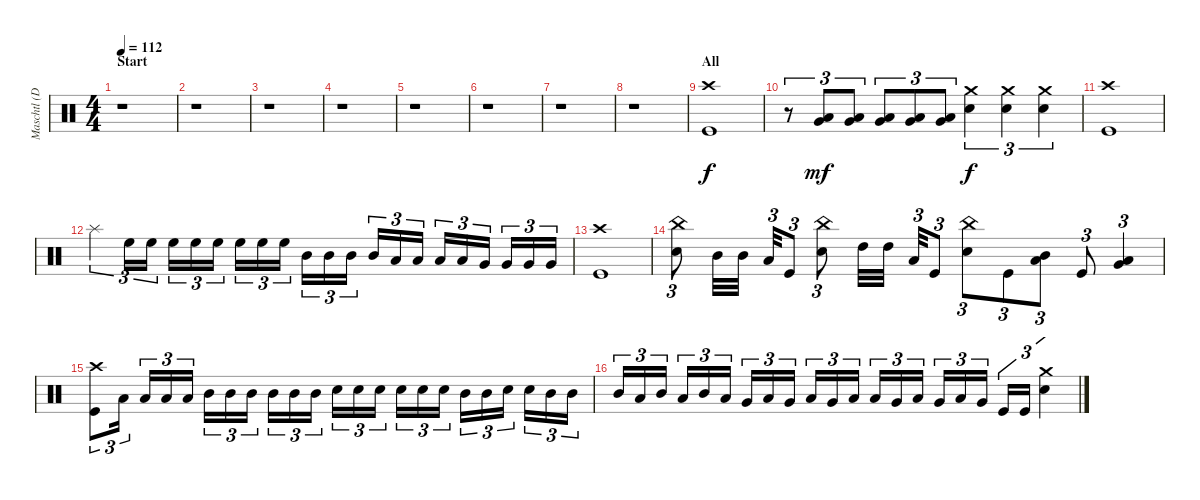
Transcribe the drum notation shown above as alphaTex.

\track ("Maschtl (Drums)" "Maschtl (D") {instrument percussion}
\staff {score}
\articulation defaults
\ts (4 4)
\section ("" "Start")
\tempo 112
\clef neutral
\ks c
r.1{dy f} |
r.1 |
r.1 |
r.1 |
r.1 |
r.1 |
r.1 |
r.1 |
\section ("" "All")
("Crash high (hit)" "Kick (hit)").1 |
r.8{tu (3 2)} ("Low Tom (hit)" "Very Low Tom (hit)").8{tu (3 2) bu 120 dy mf} ("Low Tom (hit)" "Very Low Tom (hit)").8{tu (3 2) bu 120} ("Low Tom (hit)" "Very Low Tom (hit)").8{tu (3 2) bu 120} ("Low Tom (hit)" "Very Low Tom (hit)").8{tu (3 2) bu 120} ("Low Tom (hit)" "Very Low Tom (hit)").8{tu (3 2) bu 120} ("Crash medium (hit)" "Electric Snare (hit)").4{tu (3 2) dy f} ("Crash medium (hit)" "Electric Snare (hit)").4{tu (3 2)} ("Crash medium (hit)" "Electric Snare (hit)").4{tu (3 2)} |
("Crash high (hit)" "Kick (hit)").1 |
"Splash (hit)".4{tu (3 2)} "High Floor Tom (hit)".16{tu (3 2)} "High Floor Tom (hit)".16{tu (3 2)} "High Floor Tom (hit)".16{tu (3 2)} "High Floor Tom (hit)".16{tu (3 2)} "High Floor Tom (hit)".16{tu (3 2)} "High Floor Tom (hit)".16{tu (3 2)} "High Floor Tom (hit)".16{tu (3 2)} "High Floor Tom (hit)".16{tu (3 2)} "Mid Tom (hit)".16{tu (3 2)} "Mid Tom (hit)".16{tu (3 2)} "Mid Tom (hit)".16{tu (3 2)} "Mid Tom (hit)".16{tu (3 2)} "Low Tom (hit)".16{tu (3 2)} "Low Tom (hit)".16{tu (3 2)} "Low Tom (hit)".16{tu (3 2)} "Low Tom (hit)".16{tu (3 2)} "Very Low Tom (hit)".16{tu (3 2)} "Very Low Tom (hit)".16{tu (3 2)} "Very Low Tom (hit)".16{tu (3 2)} "Very Low Tom (hit)".16{tu (3 2)} |
("Crash high (hit)" "Kick (hit)").1 |
("China (hit)" "Electric Snare (hit)").8{tu (3 2)} "Mid Tom (hit)".32 "Mid Tom (hit)".32 "Low Tom (hit)".32{tu (3 2)} "Kick (hit)".8{tu (3 2)} ("China (hit)" "Electric Snare (hit)").8{tu (3 2)} "High Tom (hit)".32 "High Tom (hit)".32 "Low Tom (hit)".32{tu (3 2)} "Kick (hit)".8{tu (3 2)} ("China (hit)" "Electric Snare (hit)").8{tu (3 2)} "Kick (hit)".8{tu (3 2)} ("Mid Tom (hit)" "Low Tom (hit)").8{tu (3 2) bd 60} "Kick (hit)".8{tu (3 2)} ("Low Tom (hit)" "Very Low Tom (hit)").4{tu (3 2) bd 60} |
("Crash high (hit)" "Kick (hit)").8{tu (3 2)} "Low Tom (hit)".16{tu (3 2)} "Low Tom (hit)".16{tu (3 2)} "Low Tom (hit)".16{tu (3 2)} "Low Tom (hit)".16{tu (3 2)} "Mid Tom (hit)".16{tu (3 2)} "Mid Tom (hit)".16{tu (3 2)} "Mid Tom (hit)".16{tu (3 2)} "Mid Tom (hit)".16{tu (3 2)} "Mid Tom (hit)".16{tu (3 2)} "Mid Tom (hit)".16{tu (3 2)} "Electric Snare (hit)".16{tu (3 2)} "Electric Snare (hit)".16{tu (3 2)} "Electric Snare (hit)".16{tu (3 2)} "Electric Snare (hit)".16{tu (3 2)} "Electric Snare (hit)".16{tu (3 2)} "Electric Snare (hit)".16{tu (3 2)} "Mid Tom (hit)".16{tu (3 2)} "Mid Tom (hit)".16{tu (3 2)} "Electric Snare (hit)".16{tu (3 2)} "Electric Snare (hit)".16{tu (3 2)} "Mid Tom (hit)".16{tu (3 2)} "Mid Tom (hit)".16{tu (3 2)} |
"Mid Tom (hit)".16{tu (3 2)} "Low Tom (hit)".16{tu (3 2)} "Mid Tom (hit)".16{tu (3 2)} "Low Tom (hit)".16{tu (3 2)} "Mid Tom (hit)".16{tu (3 2)} "Low Tom (hit)".16{tu (3 2)} "Very Low Tom (hit)".16{tu (3 2)} "Low Tom (hit)".16{tu (3 2)} "Very Low Tom (hit)".16{tu (3 2)} "Low Tom (hit)".16{tu (3 2)} "Very Low Tom (hit)".16{tu (3 2)} "Low Tom (hit)".16{tu (3 2)} "Low Floor Tom (hit)".16{tu (3 2)} "Very Low Tom (hit)".16{tu (3 2)} "Low Floor Tom (hit)".16{tu (3 2)} "Very Low Tom (hit)".16{tu (3 2)} "Low Floor Tom (hit)".16{tu (3 2)} "Very Low Tom (hit)".16{tu (3 2)} "Kick (hit)".16{tu (3 2)} "Kick (hit)".16{tu (3 2)} ("Crash medium (hit)" "Electric Snare (hit)").4{tu (3 2)}
